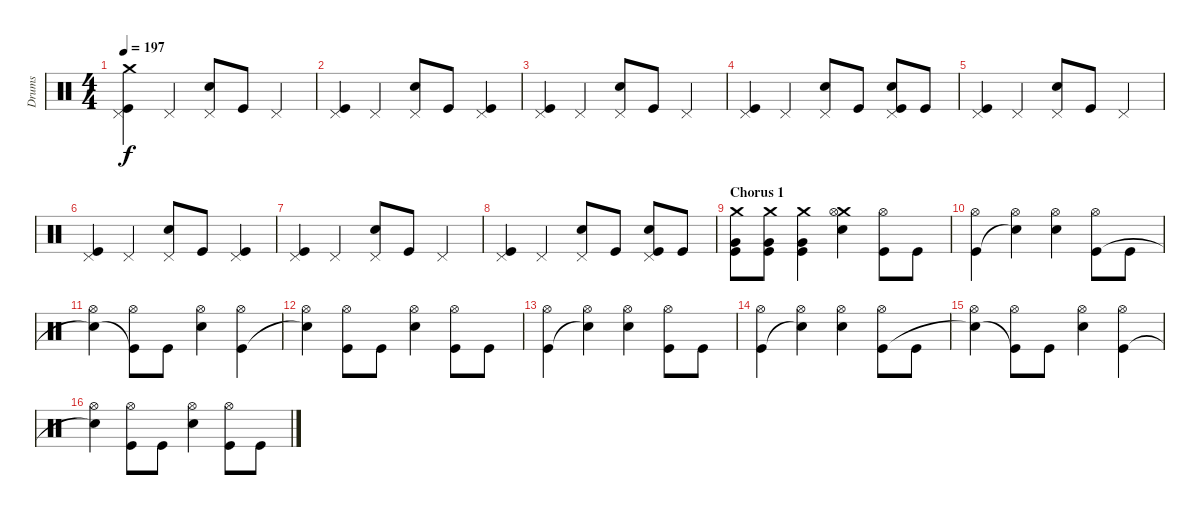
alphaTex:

\track ("Drums" "Drums") {instrument percussion}
\staff {score}
\articulation defaults
\ts (4 4)
\tempo 197
\clef neutral
\ks c
("Crash medium (hit)" "Pedal Hi-Hat (hit)" "Kick (hit)").4{dy f volume 16} "Pedal Hi-Hat (hit)".4 ("Pedal Hi-Hat (hit)" "Snare (hit) 2").8 "Kick (hit)".8 "Pedal Hi-Hat (hit)".4 |
("Pedal Hi-Hat (hit)" "Kick (hit)").4 "Pedal Hi-Hat (hit)".4 ("Pedal Hi-Hat (hit)" "Snare (hit) 2").8 "Kick (hit)".8 ("Pedal Hi-Hat (hit)" "Kick (hit)").4 |
("Pedal Hi-Hat (hit)" "Kick (hit)").4 "Pedal Hi-Hat (hit)".4 ("Pedal Hi-Hat (hit)" "Snare (hit) 2").8 "Kick (hit)".8 "Pedal Hi-Hat (hit)".4 |
("Pedal Hi-Hat (hit)" "Kick (hit)").4 "Pedal Hi-Hat (hit)".4 ("Pedal Hi-Hat (hit)" "Snare (hit) 2").8 "Kick (hit)".8 ("Pedal Hi-Hat (hit)" "Snare (hit) 2" "Kick (hit)").8 "Kick (hit)".8 |
("Pedal Hi-Hat (hit)" "Kick (hit)").4 "Pedal Hi-Hat (hit)".4 ("Pedal Hi-Hat (hit)" "Snare (hit) 2").8 "Kick (hit)".8 "Pedal Hi-Hat (hit)".4 |
("Pedal Hi-Hat (hit)" "Kick (hit)").4 "Pedal Hi-Hat (hit)".4 ("Pedal Hi-Hat (hit)" "Snare (hit) 2").8 "Kick (hit)".8 ("Pedal Hi-Hat (hit)" "Kick (hit)").4 |
("Pedal Hi-Hat (hit)" "Kick (hit)").4 "Pedal Hi-Hat (hit)".4 ("Pedal Hi-Hat (hit)" "Snare (hit) 2").8 "Kick (hit)".8 "Pedal Hi-Hat (hit)".4 |
("Pedal Hi-Hat (hit)" "Kick (hit)").4 "Pedal Hi-Hat (hit)".4 ("Pedal Hi-Hat (hit)" "Snare (hit) 2").8 "Kick (hit)".8 ("Pedal Hi-Hat (hit)" "Snare (hit) 2" "Kick (hit)").8 "Kick (hit)".8 |
\section ("" "Chorus 1")
("Crash medium (hit)" "Very Low Tom (hit)" "Kick (hit)").8 ("Crash medium (hit)" "Very Low Tom (hit)" "Kick (hit)").8 ("Crash medium (hit)" "Very Low Tom (hit)" "Kick (hit)").4 ("Crash medium (hit)" "Hi-Hat (open)" "Snare (hit) 2").4 ("Hi-Hat (open)" "Kick (hit)").8 "Kick (hit)".8 |
("Hi-Hat (open)" "Kick (hit)").4 ("Hi-Hat (open)" "Snare (hit)"{t}).4 ("Hi-Hat (open)" "Snare (hit) 2").4 ("Hi-Hat (open)" "Kick (hit)").8 "Kick (hit)".8 |
("Hi-Hat (open)" "Snare (hit)"{t}).4 ("Hi-Hat (open)" "Kick (hit)"{t}).8 "Kick (hit)".8 ("Hi-Hat (open)" "Snare (hit) 2").4 ("Hi-Hat (open)" "Kick (hit)").4 |
("Hi-Hat (open)" "Snare (hit)"{t}).4 ("Hi-Hat (open)" "Kick (hit)").8 "Kick (hit)".8 ("Hi-Hat (open)" "Snare (hit) 2").4 ("Hi-Hat (open)" "Kick (hit)").8 "Kick (hit)".8 |
("Hi-Hat (open)" "Kick (hit)").4 ("Hi-Hat (open)" "Snare (hit)"{t}).4 ("Hi-Hat (open)" "Snare (hit) 2").4 ("Hi-Hat (open)" "Kick (hit)").8 "Kick (hit)".8 |
("Hi-Hat (open)" "Kick (hit)").4 ("Hi-Hat (open)" "Snare (hit)"{t}).4 ("Hi-Hat (open)" "Snare (hit) 2").4 ("Hi-Hat (open)" "Kick (hit)").8 "Kick (hit)".8 |
("Hi-Hat (open)" "Snare (hit)"{t}).4 ("Hi-Hat (open)" "Kick (hit)"{t}).8 "Kick (hit)".8 ("Hi-Hat (open)" "Snare (hit) 2").4 ("Hi-Hat (open)" "Kick (hit)").4 |
("Hi-Hat (open)" "Snare (hit)"{t}).4 ("Hi-Hat (open)" "Kick (hit)").8 "Kick (hit)".8 ("Hi-Hat (open)" "Snare (hit) 2").4 ("Hi-Hat (open)" "Kick (hit)").8 "Kick (hit)".8
